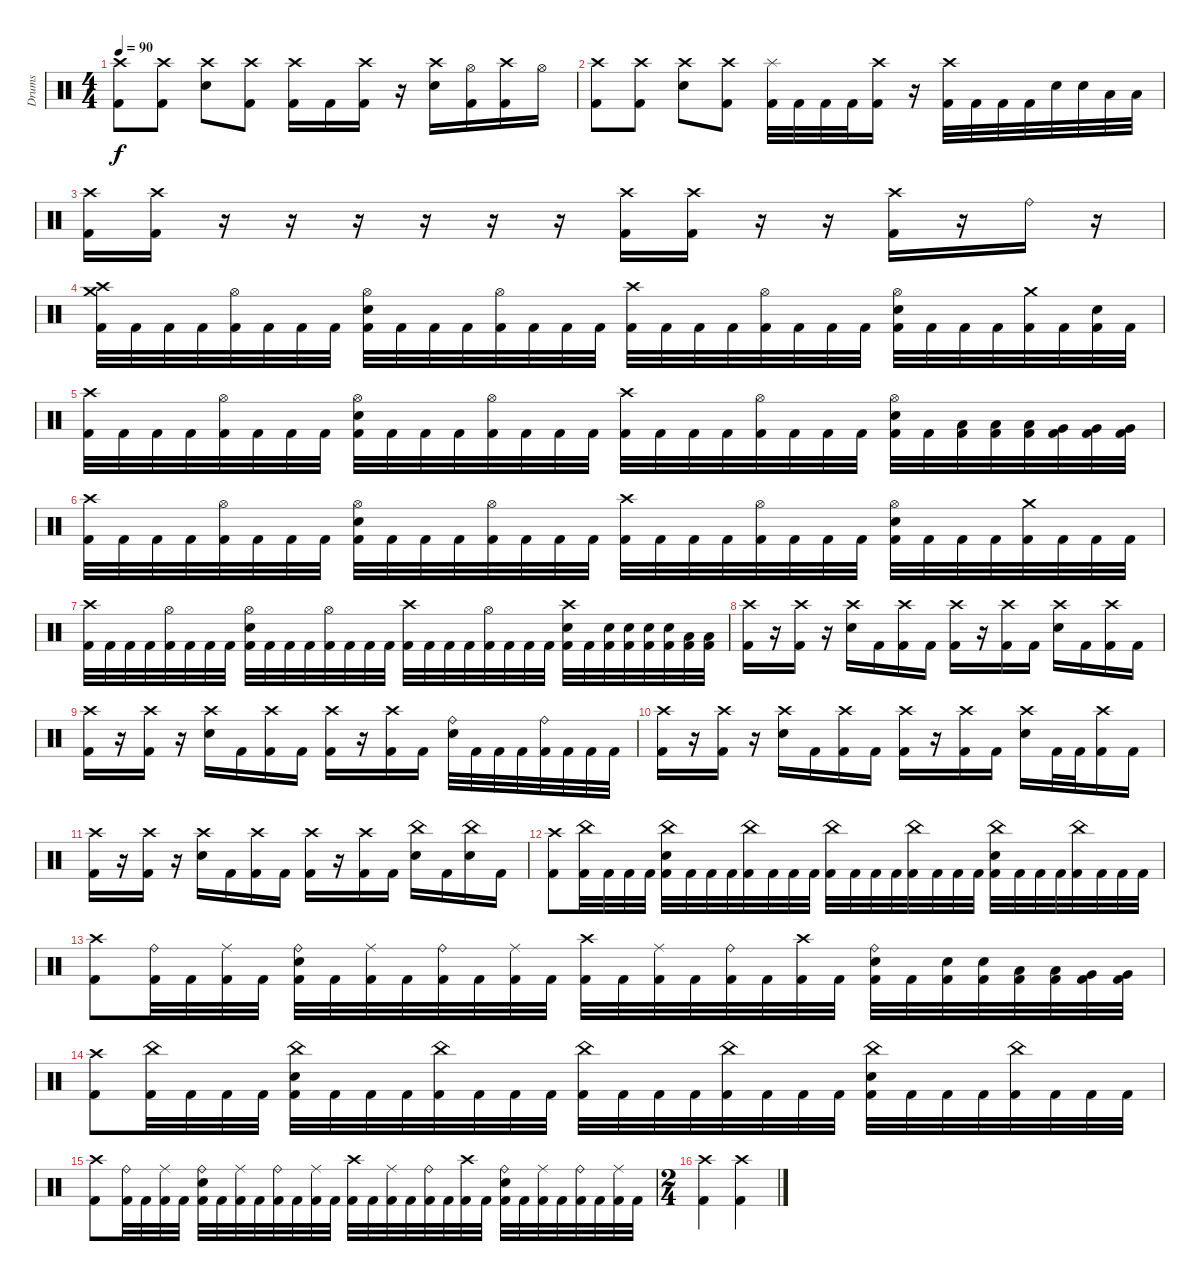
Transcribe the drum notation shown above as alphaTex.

\track ("Drums" "Drums") {instrument percussion}
\staff {score}
\articulation defaults
\ts (4 4)
\tempo 90
\clef neutral
\ks c
("Crash high (hit)" "Kick (hit) 2").8{dy f} ("Crash high (hit)" "Kick (hit) 2").8 ("Crash high (hit)" "Electric Snare (hit)").8 ("Crash high (hit)" "Kick (hit) 2").8 ("Crash high (hit)" "Kick (hit) 2").16 "Kick (hit) 2".16 ("Crash high (hit)" "Kick (hit) 2").16 r.16 ("Crash high (hit)" "Electric Snare (hit)").16 ("Hi-Hat (open)" "Kick (hit) 2").16 ("Crash high (hit)" "Kick (hit) 2").16 "Hi-Hat (open)".16 |
("Crash high (hit)" "Kick (hit) 2").8 ("Crash high (hit)" "Kick (hit) 2").8 ("Crash high (hit)" "Electric Snare (hit)").8 ("Crash high (hit)" "Kick (hit) 2").8 ("Splash (hit)" "Kick (hit) 2").32 "Kick (hit) 2".32 "Kick (hit) 2".32 "Kick (hit) 2".32 ("Crash high (hit)" "Kick (hit) 2").16 r.16 ("Crash high (hit)" "Kick (hit) 2").32 "Kick (hit) 2".32 "Kick (hit) 2".32 "Kick (hit) 2".32 "Electric Snare (hit)".32 "Electric Snare (hit)".32 "Low Tom (hit)".32 "Low Tom (hit)".32 |
("Crash high (hit)" "Kick (hit) 2").16 ("Crash high (hit)" "Kick (hit) 2").16 r.16 r.16 r.16 r.16 r.16 r.16 ("Crash high (hit)" "Kick (hit) 2").16 ("Crash high (hit)" "Kick (hit) 2").16 r.16 r.16 ("Crash high (hit)" "Kick (hit) 2").16 r.16 "Ride (bell)".16 r.16 |
("Crash high (hit)" "Crash medium (hit)" "Kick (hit) 2").32 "Kick (hit) 2".32 "Kick (hit) 2".32 "Kick (hit) 2".32 ("Hi-Hat (open)" "Kick (hit) 2").32 "Kick (hit) 2".32 "Kick (hit) 2".32 "Kick (hit) 2".32 ("Hi-Hat (open)" "Electric Snare (hit)" "Kick (hit) 2").32 "Kick (hit) 2".32 "Kick (hit) 2".32 "Kick (hit) 2".32 ("Hi-Hat (open)" "Kick (hit) 2").32 "Kick (hit) 2".32 "Kick (hit) 2".32 "Kick (hit) 2".32 ("Crash high (hit)" "Kick (hit) 2").32 "Kick (hit) 2".32 "Kick (hit) 2".32 "Kick (hit) 2".32 ("Hi-Hat (open)" "Kick (hit) 2").32 "Kick (hit) 2".32 "Kick (hit) 2".32 "Kick (hit) 2".32 ("Hi-Hat (open)" "Electric Snare (hit)" "Kick (hit) 2").32 "Kick (hit) 2".32 "Kick (hit) 2".32 "Kick (hit) 2".32 ("Crash medium (hit)" "Kick (hit) 2").32 "Kick (hit) 2".32 ("Electric Snare (hit)" "Kick (hit) 2").32 "Kick (hit) 2".32 |
("Crash high (hit)" "Kick (hit) 2").32 "Kick (hit) 2".32 "Kick (hit) 2".32 "Kick (hit) 2".32 ("Hi-Hat (open)" "Kick (hit) 2").32 "Kick (hit) 2".32 "Kick (hit) 2".32 "Kick (hit) 2".32 ("Hi-Hat (open)" "Electric Snare (hit)" "Kick (hit) 2").32 "Kick (hit) 2".32 "Kick (hit) 2".32 "Kick (hit) 2".32 ("Hi-Hat (open)" "Kick (hit) 2").32 "Kick (hit) 2".32 "Kick (hit) 2".32 "Kick (hit) 2".32 ("Crash high (hit)" "Kick (hit) 2").32 "Kick (hit) 2".32 "Kick (hit) 2".32 "Kick (hit) 2".32 ("Hi-Hat (open)" "Kick (hit) 2").32 "Kick (hit) 2".32 "Kick (hit) 2".32 "Kick (hit) 2".32 ("Hi-Hat (open)" "Electric Snare (hit)" "Kick (hit) 2").32 "Kick (hit) 2".32 ("Low Tom (hit)" "Kick (hit) 2").32 ("Low Tom (hit)" "Kick (hit) 2").32 ("Low Tom (hit)" "Kick (hit) 2").32 ("Very Low Tom (hit)" "Kick (hit) 2").32 ("Very Low Tom (hit)" "Kick (hit) 2").32 ("Very Low Tom (hit)" "Kick (hit) 2").32 |
("Crash high (hit)" "Kick (hit) 2").32 "Kick (hit) 2".32 "Kick (hit) 2".32 "Kick (hit) 2".32 ("Hi-Hat (open)" "Kick (hit) 2").32 "Kick (hit) 2".32 "Kick (hit) 2".32 "Kick (hit) 2".32 ("Hi-Hat (open)" "Electric Snare (hit)" "Kick (hit) 2").32 "Kick (hit) 2".32 "Kick (hit) 2".32 "Kick (hit) 2".32 ("Hi-Hat (open)" "Kick (hit) 2").32 "Kick (hit) 2".32 "Kick (hit) 2".32 "Kick (hit) 2".32 ("Crash high (hit)" "Kick (hit) 2").32 "Kick (hit) 2".32 "Kick (hit) 2".32 "Kick (hit) 2".32 ("Hi-Hat (open)" "Kick (hit) 2").32 "Kick (hit) 2".32 "Kick (hit) 2".32 "Kick (hit) 2".32 ("Hi-Hat (open)" "Electric Snare (hit)" "Kick (hit) 2").32 "Kick (hit) 2".32 "Kick (hit) 2".32 "Kick (hit) 2".32 ("Crash medium (hit)" "Kick (hit) 2").32 "Kick (hit) 2".32 "Kick (hit) 2".32 "Kick (hit) 2".32 |
("Crash high (hit)" "Kick (hit) 2").32 "Kick (hit) 2".32 "Kick (hit) 2".32 "Kick (hit) 2".32 ("Hi-Hat (open)" "Kick (hit) 2").32 "Kick (hit) 2".32 "Kick (hit) 2".32 "Kick (hit) 2".32 ("Hi-Hat (open)" "Electric Snare (hit)" "Kick (hit) 2").32 "Kick (hit) 2".32 "Kick (hit) 2".32 "Kick (hit) 2".32 ("Hi-Hat (open)" "Kick (hit) 2").32 "Kick (hit) 2".32 "Kick (hit) 2".32 "Kick (hit) 2".32 ("Crash high (hit)" "Kick (hit) 2").32 "Kick (hit) 2".32 "Kick (hit) 2".32 "Kick (hit) 2".32 ("Hi-Hat (open)" "Kick (hit) 2").32 "Kick (hit) 2".32 "Kick (hit) 2".32 "Kick (hit) 2".32 ("Crash high (hit)" "Electric Snare (hit)" "Kick (hit) 2").32 "Kick (hit) 2".32 ("Electric Snare (hit)" "Kick (hit) 2").32 ("Electric Snare (hit)" "Kick (hit) 2").32 ("Electric Snare (hit)" "Kick (hit) 2").32 ("Electric Snare (hit)" "Kick (hit) 2").32 ("Low Tom (hit)" "Kick (hit) 2").32 ("Low Tom (hit)" "Kick (hit) 2").32 |
("Crash high (hit)" "Kick (hit) 2").16 r.16 ("Crash high (hit)" "Kick (hit) 2").16 r.16 ("Crash high (hit)" "Electric Snare (hit)").16 "Kick (hit) 2".16 ("Crash high (hit)" "Kick (hit) 2").16 "Kick (hit) 2".16 ("Crash high (hit)" "Kick (hit) 2").16 r.16 ("Crash high (hit)" "Kick (hit) 2").16 "Kick (hit) 2".16 ("Crash high (hit)" "Electric Snare (hit)").16 "Kick (hit) 2".16 ("Crash high (hit)" "Kick (hit) 2").16 "Kick (hit) 2".16 |
("Crash high (hit)" "Kick (hit) 2").16 r.16 ("Crash high (hit)" "Kick (hit) 2").16 r.16 ("Crash high (hit)" "Electric Snare (hit)").16 "Kick (hit) 2".16 ("Crash high (hit)" "Kick (hit) 2").16 "Kick (hit) 2".16 ("Crash high (hit)" "Kick (hit) 2").16 r.16 ("Crash high (hit)" "Kick (hit) 2").16 "Kick (hit) 2".16 ("Ride (bell)" "Electric Snare (hit)").32 "Kick (hit) 2".32 "Kick (hit) 2".32 "Kick (hit) 2".32 ("Ride (bell)" "Kick (hit) 2").32 "Kick (hit) 2".32 "Kick (hit) 2".32 "Kick (hit) 2".32 |
("Crash high (hit)" "Kick (hit) 2").16 r.16 ("Crash high (hit)" "Kick (hit) 2").16 r.16 ("Crash high (hit)" "Electric Snare (hit)").16 "Kick (hit) 2".16 ("Crash high (hit)" "Kick (hit) 2").16 "Kick (hit) 2".16 ("Crash high (hit)" "Kick (hit) 2").16 r.16 ("Crash high (hit)" "Kick (hit) 2").16 "Kick (hit) 2".16 ("Crash high (hit)" "Electric Snare (hit)").16 "Kick (hit) 2".32 "Kick (hit) 2".32 ("Crash high (hit)" "Kick (hit) 2").16 "Kick (hit) 2".16 |
("Crash high (hit)" "Kick (hit) 2").16 r.16 ("Crash high (hit)" "Kick (hit) 2").16 r.16 ("Crash high (hit)" "Electric Snare (hit)").16 "Kick (hit) 2".16 ("Crash high (hit)" "Kick (hit) 2").16 "Kick (hit) 2".16 ("Crash high (hit)" "Kick (hit) 2").16 r.16 ("Crash high (hit)" "Kick (hit) 2").16 "Kick (hit) 2".16 ("China (hit)" "Electric Snare (hit)").16 "Kick (hit) 2".16 ("China (hit)" "Electric Snare (hit)").16 "Kick (hit) 2".16 |
("Crash high (hit)" "Kick (hit) 2").8 ("China (hit)" "Kick (hit) 2").32 "Kick (hit) 2".32 "Kick (hit) 2".32 "Kick (hit) 2".32 ("China (hit)" "Electric Snare (hit)" "Kick (hit) 2").32 "Kick (hit) 2".32 "Kick (hit) 2".32 "Kick (hit) 2".32 ("China (hit)" "Kick (hit) 2").32 "Kick (hit) 2".32 "Kick (hit) 2".32 "Kick (hit) 2".32 ("China (hit)" "Kick (hit) 2").32 "Kick (hit) 2".32 "Kick (hit) 2".32 "Kick (hit) 2".32 ("China (hit)" "Kick (hit) 2").32 "Kick (hit) 2".32 "Kick (hit) 2".32 "Kick (hit) 2".32 ("China (hit)" "Electric Snare (hit)" "Kick (hit) 2").32 "Kick (hit) 2".32 "Kick (hit) 2".32 "Kick (hit) 2".32 ("China (hit)" "Kick (hit) 2").32 "Kick (hit) 2".32 "Kick (hit) 2".32 "Kick (hit) 2".32 |
("Crash high (hit)" "Kick (hit) 2").8 ("Ride (bell)" "Kick (hit) 2").32 "Kick (hit) 2".32 ("Ride (middle)" "Kick (hit) 2").32 "Kick (hit) 2".32 ("Ride (bell)" "Electric Snare (hit)" "Kick (hit) 2").32 "Kick (hit) 2".32 ("Ride (middle)" "Kick (hit) 2").32 "Kick (hit) 2".32 ("Ride (bell)" "Kick (hit) 2").32 "Kick (hit) 2".32 ("Ride (middle)" "Kick (hit) 2").32 "Kick (hit) 2".32 ("Crash high (hit)" "Kick (hit) 2").32 "Kick (hit) 2".32 ("Ride (middle)" "Kick (hit) 2").32 "Kick (hit) 2".32 ("Ride (bell)" "Kick (hit) 2").32 "Kick (hit) 2".32 ("Crash high (hit)" "Kick (hit) 2").32 "Kick (hit) 2".32 ("Ride (bell)" "Electric Snare (hit)" "Kick (hit) 2").32 "Kick (hit) 2".32 ("Electric Snare (hit)" "Kick (hit) 2").32 ("Electric Snare (hit)" "Kick (hit) 2").32 ("Low Tom (hit)" "Kick (hit) 2").32 ("Low Tom (hit)" "Kick (hit) 2").32 ("Very Low Tom (hit)" "Kick (hit) 2").32 ("Very Low Tom (hit)" "Kick (hit) 2").32 |
("Crash high (hit)" "Kick (hit) 2").8 ("China (hit)" "Kick (hit) 2").32 "Kick (hit) 2".32 "Kick (hit) 2".32 "Kick (hit) 2".32 ("China (hit)" "Electric Snare (hit)" "Kick (hit) 2").32 "Kick (hit) 2".32 "Kick (hit) 2".32 "Kick (hit) 2".32 ("China (hit)" "Kick (hit) 2").32 "Kick (hit) 2".32 "Kick (hit) 2".32 "Kick (hit) 2".32 ("China (hit)" "Kick (hit) 2").32 "Kick (hit) 2".32 "Kick (hit) 2".32 "Kick (hit) 2".32 ("China (hit)" "Kick (hit) 2").32 "Kick (hit) 2".32 "Kick (hit) 2".32 "Kick (hit) 2".32 ("China (hit)" "Electric Snare (hit)" "Kick (hit) 2").32 "Kick (hit) 2".32 "Kick (hit) 2".32 "Kick (hit) 2".32 ("China (hit)" "Kick (hit) 2").32 "Kick (hit) 2".32 "Kick (hit) 2".32 "Kick (hit) 2".32 |
("Crash high (hit)" "Kick (hit) 2").8 ("Ride (bell)" "Kick (hit) 2").32 "Kick (hit) 2".32 ("Ride (middle)" "Kick (hit) 2").32 "Kick (hit) 2".32 ("Ride (bell)" "Electric Snare (hit)" "Kick (hit) 2").32 "Kick (hit) 2".32 ("Ride (middle)" "Kick (hit) 2").32 "Kick (hit) 2".32 ("Ride (bell)" "Kick (hit) 2").32 "Kick (hit) 2".32 ("Ride (middle)" "Kick (hit) 2").32 "Kick (hit) 2".32 ("Crash high (hit)" "Kick (hit) 2").32 "Kick (hit) 2".32 ("Ride (middle)" "Kick (hit) 2").32 "Kick (hit) 2".32 ("Ride (bell)" "Kick (hit) 2").32 "Kick (hit) 2".32 ("Crash high (hit)" "Kick (hit) 2").32 "Kick (hit) 2".32 ("Ride (bell)" "Electric Snare (hit)" "Kick (hit) 2").32 "Kick (hit) 2".32 ("Ride (middle)" "Kick (hit) 2").32 "Kick (hit) 2".32 ("Ride (bell)" "Kick (hit) 2").32 "Kick (hit) 2".32 ("Ride (middle)" "Kick (hit) 2").32 "Kick (hit) 2".32 |
\ts (2 4)
("Crash high (hit)" "Kick (hit) 2").4 ("Crash high (hit)" "Kick (hit) 2").4
